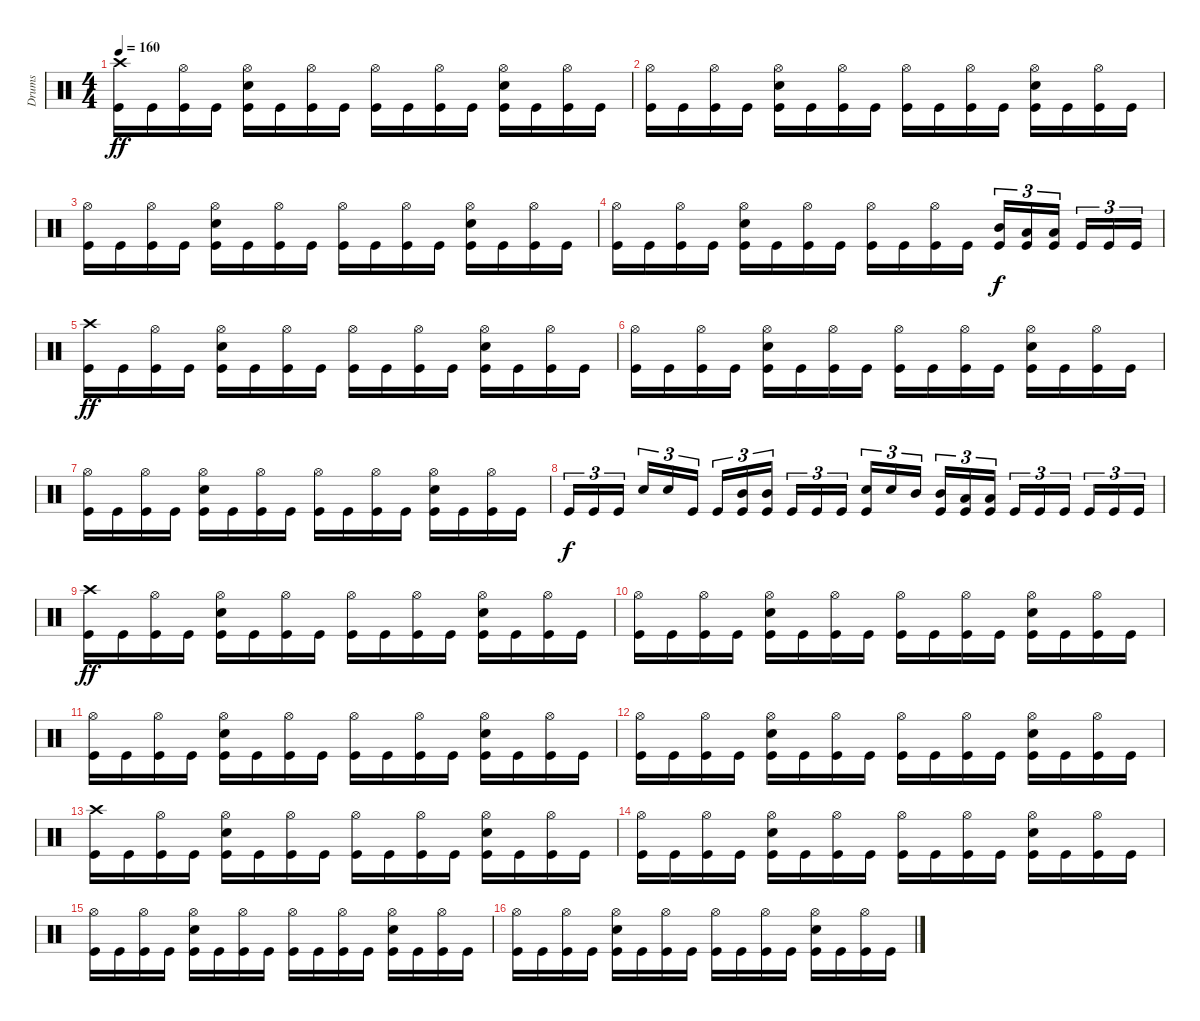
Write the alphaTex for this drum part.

\track ("Drums" "Drums") {instrument percussion}
\staff {score}
\articulation defaults
\ts (4 4)
\tempo 160
\clef neutral
\ks c
("Crash high (hit)" "Kick (hit)").16{dy ff} "Kick (hit)".16 ("Hi-Hat (open)" "Kick (hit)").16 "Kick (hit)".16 ("Hi-Hat (open)" "Snare (hit) 2" "Kick (hit)").16 "Kick (hit)".16 ("Hi-Hat (open)" "Kick (hit)").16 "Kick (hit)".16 ("Hi-Hat (open)" "Kick (hit)").16 "Kick (hit)".16 ("Hi-Hat (open)" "Kick (hit)").16 "Kick (hit)".16 ("Hi-Hat (open)" "Snare (hit) 2" "Kick (hit)").16 "Kick (hit)".16 ("Hi-Hat (open)" "Kick (hit)").16 "Kick (hit)".16 |
("Hi-Hat (open)" "Kick (hit)").16 "Kick (hit)".16 ("Hi-Hat (open)" "Kick (hit)").16 "Kick (hit)".16 ("Hi-Hat (open)" "Snare (hit) 2" "Kick (hit)").16 "Kick (hit)".16 ("Hi-Hat (open)" "Kick (hit)").16 "Kick (hit)".16 ("Hi-Hat (open)" "Kick (hit)").16 "Kick (hit)".16 ("Hi-Hat (open)" "Kick (hit)").16 "Kick (hit)".16 ("Hi-Hat (open)" "Snare (hit) 2" "Kick (hit)").16 "Kick (hit)".16 ("Hi-Hat (open)" "Kick (hit)").16 "Kick (hit)".16 |
("Hi-Hat (open)" "Kick (hit)").16 "Kick (hit)".16 ("Hi-Hat (open)" "Kick (hit)").16 "Kick (hit)".16 ("Hi-Hat (open)" "Snare (hit) 2" "Kick (hit)").16 "Kick (hit)".16 ("Hi-Hat (open)" "Kick (hit)").16 "Kick (hit)".16 ("Hi-Hat (open)" "Kick (hit)").16 "Kick (hit)".16 ("Hi-Hat (open)" "Kick (hit)").16 "Kick (hit)".16 ("Hi-Hat (open)" "Snare (hit) 2" "Kick (hit)").16 "Kick (hit)".16 ("Hi-Hat (open)" "Kick (hit)").16 "Kick (hit)".16 |
("Hi-Hat (open)" "Kick (hit)").16 "Kick (hit)".16 ("Hi-Hat (open)" "Kick (hit)").16 "Kick (hit)".16 ("Hi-Hat (open)" "Snare (hit) 2" "Kick (hit)").16 "Kick (hit)".16 ("Hi-Hat (open)" "Kick (hit)").16 "Kick (hit)".16 ("Hi-Hat (open)" "Kick (hit)").16 "Kick (hit)".16 ("Hi-Hat (open)" "Kick (hit)").16 "Kick (hit)".16 ("Mid Tom (hit)" "Kick (hit)").16{tu (3 2) dy f} ("Low Tom (hit)" "Kick (hit)").16{tu (3 2)} ("Low Tom (hit)" "Kick (hit)").16{tu (3 2)} "Kick (hit)".16{tu (3 2)} "Kick (hit)".16{tu (3 2)} "Kick (hit)".16{tu (3 2)} |
("Crash high (hit)" "Kick (hit)").16{dy ff} "Kick (hit)".16 ("Hi-Hat (open)" "Kick (hit)").16 "Kick (hit)".16 ("Hi-Hat (open)" "Snare (hit) 2" "Kick (hit)").16 "Kick (hit)".16 ("Hi-Hat (open)" "Kick (hit)").16 "Kick (hit)".16 ("Hi-Hat (open)" "Kick (hit)").16 "Kick (hit)".16 ("Hi-Hat (open)" "Kick (hit)").16 "Kick (hit)".16 ("Hi-Hat (open)" "Snare (hit) 2" "Kick (hit)").16 "Kick (hit)".16 ("Hi-Hat (open)" "Kick (hit)").16 "Kick (hit)".16 |
("Hi-Hat (open)" "Kick (hit)").16 "Kick (hit)".16 ("Hi-Hat (open)" "Kick (hit)").16 "Kick (hit)".16 ("Hi-Hat (open)" "Snare (hit) 2" "Kick (hit)").16 "Kick (hit)".16 ("Hi-Hat (open)" "Kick (hit)").16 "Kick (hit)".16 ("Hi-Hat (open)" "Kick (hit)").16 "Kick (hit)".16 ("Hi-Hat (open)" "Kick (hit)").16 "Kick (hit)".16 ("Hi-Hat (open)" "Snare (hit) 2" "Kick (hit)").16 "Kick (hit)".16 ("Hi-Hat (open)" "Kick (hit)").16 "Kick (hit)".16 |
("Hi-Hat (open)" "Kick (hit)").16 "Kick (hit)".16 ("Hi-Hat (open)" "Kick (hit)").16 "Kick (hit)".16 ("Hi-Hat (open)" "Snare (hit) 2" "Kick (hit)").16 "Kick (hit)".16 ("Hi-Hat (open)" "Kick (hit)").16 "Kick (hit)".16 ("Hi-Hat (open)" "Kick (hit)").16 "Kick (hit)".16 ("Hi-Hat (open)" "Kick (hit)").16 "Kick (hit)".16 ("Hi-Hat (open)" "Snare (hit) 2" "Kick (hit)").16 "Kick (hit)".16 ("Hi-Hat (open)" "Kick (hit)").16 "Kick (hit)".16 |
"Kick (hit)".16{tu (3 2) dy f} "Kick (hit)".16{tu (3 2)} "Kick (hit)".16{tu (3 2)} "Snare (hit) 2".16{tu (3 2)} "Snare (hit) 2".16{tu (3 2)} "Kick (hit)".16{tu (3 2)} "Kick (hit)".16{tu (3 2)} ("Mid Tom (hit)" "Kick (hit)").16{tu (3 2)} ("Mid Tom (hit)" "Kick (hit)").16{tu (3 2)} "Kick (hit)".16{tu (3 2)} "Kick (hit)".16{tu (3 2)} "Kick (hit)".16{tu (3 2)} ("Snare (hit) 2" "Kick (hit)").16{tu (3 2)} "Snare (hit) 2".16{tu (3 2)} "Mid Tom (hit)".16{tu (3 2)} ("Mid Tom (hit)" "Kick (hit)").16{tu (3 2)} ("Low Tom (hit)" "Kick (hit)").16{tu (3 2)} ("Low Tom (hit)" "Kick (hit)").16{tu (3 2)} "Kick (hit)".16{tu (3 2)} "Kick (hit)".16{tu (3 2)} "Kick (hit)".16{tu (3 2)} "Kick (hit)".16{tu (3 2)} "Kick (hit)".16{tu (3 2)} "Kick (hit)".16{tu (3 2)} |
("Crash high (hit)" "Kick (hit)").16{dy ff} "Kick (hit)".16 ("Hi-Hat (open)" "Kick (hit)").16 "Kick (hit)".16 ("Hi-Hat (open)" "Snare (hit) 2" "Kick (hit)").16 "Kick (hit)".16 ("Hi-Hat (open)" "Kick (hit)").16 "Kick (hit)".16 ("Hi-Hat (open)" "Kick (hit)").16 "Kick (hit)".16 ("Hi-Hat (open)" "Kick (hit)").16 "Kick (hit)".16 ("Hi-Hat (open)" "Snare (hit) 2" "Kick (hit)").16 "Kick (hit)".16 ("Hi-Hat (open)" "Kick (hit)").16 "Kick (hit)".16 |
("Hi-Hat (open)" "Kick (hit)").16 "Kick (hit)".16 ("Hi-Hat (open)" "Kick (hit)").16 "Kick (hit)".16 ("Hi-Hat (open)" "Snare (hit) 2" "Kick (hit)").16 "Kick (hit)".16 ("Hi-Hat (open)" "Kick (hit)").16 "Kick (hit)".16 ("Hi-Hat (open)" "Kick (hit)").16 "Kick (hit)".16 ("Hi-Hat (open)" "Kick (hit)").16 "Kick (hit)".16 ("Hi-Hat (open)" "Snare (hit) 2" "Kick (hit)").16 "Kick (hit)".16 ("Hi-Hat (open)" "Kick (hit)").16 "Kick (hit)".16 |
("Hi-Hat (open)" "Kick (hit)").16 "Kick (hit)".16 ("Hi-Hat (open)" "Kick (hit)").16 "Kick (hit)".16 ("Hi-Hat (open)" "Snare (hit) 2" "Kick (hit)").16 "Kick (hit)".16 ("Hi-Hat (open)" "Kick (hit)").16 "Kick (hit)".16 ("Hi-Hat (open)" "Kick (hit)").16 "Kick (hit)".16 ("Hi-Hat (open)" "Kick (hit)").16 "Kick (hit)".16 ("Hi-Hat (open)" "Snare (hit) 2" "Kick (hit)").16 "Kick (hit)".16 ("Hi-Hat (open)" "Kick (hit)").16 "Kick (hit)".16 |
("Hi-Hat (open)" "Kick (hit)").16 "Kick (hit)".16 ("Hi-Hat (open)" "Kick (hit)").16 "Kick (hit)".16 ("Hi-Hat (open)" "Snare (hit) 2" "Kick (hit)").16 "Kick (hit)".16 ("Hi-Hat (open)" "Kick (hit)").16 "Kick (hit)".16 ("Hi-Hat (open)" "Kick (hit)").16 "Kick (hit)".16 ("Hi-Hat (open)" "Kick (hit)").16 "Kick (hit)".16 ("Hi-Hat (open)" "Snare (hit) 2" "Kick (hit)").16 "Kick (hit)".16 ("Hi-Hat (open)" "Kick (hit)").16 "Kick (hit)".16 |
("Crash high (hit)" "Kick (hit)").16 "Kick (hit)".16 ("Hi-Hat (open)" "Kick (hit)").16 "Kick (hit)".16 ("Hi-Hat (open)" "Snare (hit) 2" "Kick (hit)").16 "Kick (hit)".16 ("Hi-Hat (open)" "Kick (hit)").16 "Kick (hit)".16 ("Hi-Hat (open)" "Kick (hit)").16 "Kick (hit)".16 ("Hi-Hat (open)" "Kick (hit)").16 "Kick (hit)".16 ("Hi-Hat (open)" "Snare (hit) 2" "Kick (hit)").16 "Kick (hit)".16 ("Hi-Hat (open)" "Kick (hit)").16 "Kick (hit)".16 |
("Hi-Hat (open)" "Kick (hit)").16 "Kick (hit)".16 ("Hi-Hat (open)" "Kick (hit)").16 "Kick (hit)".16 ("Hi-Hat (open)" "Snare (hit) 2" "Kick (hit)").16 "Kick (hit)".16 ("Hi-Hat (open)" "Kick (hit)").16 "Kick (hit)".16 ("Hi-Hat (open)" "Kick (hit)").16 "Kick (hit)".16 ("Hi-Hat (open)" "Kick (hit)").16 "Kick (hit)".16 ("Hi-Hat (open)" "Snare (hit) 2" "Kick (hit)").16 "Kick (hit)".16 ("Hi-Hat (open)" "Kick (hit)").16 "Kick (hit)".16 |
("Hi-Hat (open)" "Kick (hit)").16 "Kick (hit)".16 ("Hi-Hat (open)" "Kick (hit)").16 "Kick (hit)".16 ("Hi-Hat (open)" "Snare (hit) 2" "Kick (hit)").16 "Kick (hit)".16 ("Hi-Hat (open)" "Kick (hit)").16 "Kick (hit)".16 ("Hi-Hat (open)" "Kick (hit)").16 "Kick (hit)".16 ("Hi-Hat (open)" "Kick (hit)").16 "Kick (hit)".16 ("Hi-Hat (open)" "Snare (hit) 2" "Kick (hit)").16 "Kick (hit)".16 ("Hi-Hat (open)" "Kick (hit)").16 "Kick (hit)".16 |
("Hi-Hat (open)" "Kick (hit)").16 "Kick (hit)".16 ("Hi-Hat (open)" "Kick (hit)").16 "Kick (hit)".16 ("Hi-Hat (open)" "Snare (hit) 2" "Kick (hit)").16 "Kick (hit)".16 ("Hi-Hat (open)" "Kick (hit)").16 "Kick (hit)".16 ("Hi-Hat (open)" "Kick (hit)").16 "Kick (hit)".16 ("Hi-Hat (open)" "Kick (hit)").16 "Kick (hit)".16 ("Hi-Hat (open)" "Snare (hit) 2" "Kick (hit)").16 "Kick (hit)".16 ("Hi-Hat (open)" "Kick (hit)").16 "Kick (hit)".16
